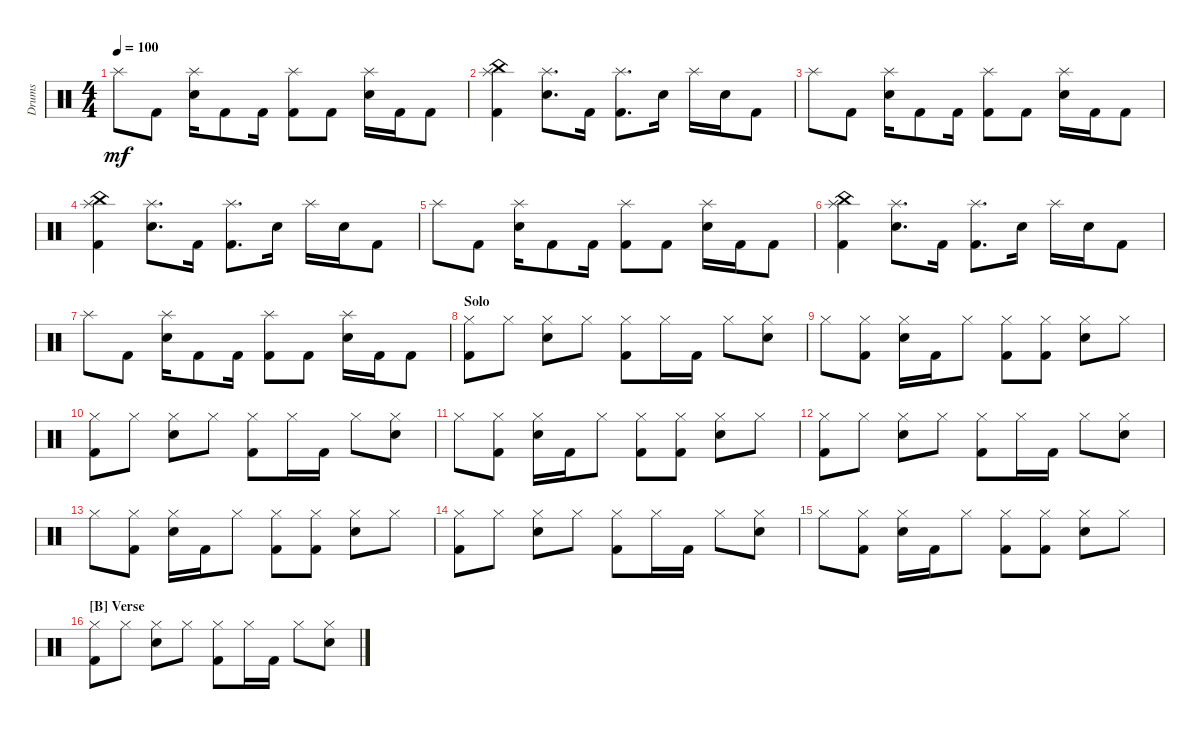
\defaultSystemsLayout 4
\bracketExtendMode groupsimilarinstruments
\otherSystemsTrackNameOrientation horizontal
\track ("Prakarsh" "Drums") {instrument percussion}
\staff {score}
\articulation defaults
\ts (4 4)
\tempo 100
\clef neutral
\ks c "Splash (hit)".8{dy mf beam Down} "Kick (hit) 2".8{beam Down}
("Snare (hit) 2" "Splash (hit)").16{beam Down} "Kick (hit) 2".8{beam Down} "Kick (hit) 2".16{beam Down} ("Kick (hit) 2" "Splash (hit)").8{beam Down} "Kick (hit) 2".8{beam Down} ("Snare (hit) 2" "Splash (hit)").16{beam Down} "Kick (hit) 2".16{beam Down} "Kick (hit) 2".8{beam Down} |
("Kick (hit) 2" "China (hit)" "Splash (hit)").4{beam Down} ("Snare (hit) 2" "Splash (hit)").8{d beam Down} "Kick (hit) 2".16{beam Down} ("Kick (hit) 2" "Splash (hit)").8{d beam Down} "Snare (hit) 2".16{beam Down} "Splash (hit)".16{beam Down} "Snare (hit) 2".16{beam Down} "Kick (hit) 2".8{beam Down} |
"Splash (hit)".8{beam Down} "Kick (hit) 2".8{beam Down} ("Snare (hit) 2" "Splash (hit)").16{beam Down} "Kick (hit) 2".8{beam Down} "Kick (hit) 2".16{beam Down} ("Kick (hit) 2" "Splash (hit)").8{beam Down} "Kick (hit) 2".8{beam Down} ("Snare (hit) 2" "Splash (hit)").16{beam Down} "Kick (hit) 2".16{beam Down} "Kick (hit) 2".8{beam Down} |
("Kick (hit) 2" "China (hit)" "Splash (hit)").4{beam Down} ("Snare (hit) 2" "Splash (hit)").8{d beam Down} "Kick (hit) 2".16{beam Down} ("Kick (hit) 2" "Splash (hit)").8{d beam Down} "Snare (hit) 2".16{beam Down} "Splash (hit)".16{beam Down} "Snare (hit) 2".16{beam Down} "Kick (hit) 2".8{beam Down} |
"Splash (hit)".8{beam Down} "Kick (hit) 2".8{beam Down} ("Snare (hit) 2" "Splash (hit)").16{beam Down} "Kick (hit) 2".8{beam Down} "Kick (hit) 2".16{beam Down} ("Kick (hit) 2" "Splash (hit)").8{beam Down} "Kick (hit) 2".8{beam Down} ("Snare (hit) 2" "Splash (hit)").16{beam Down} "Kick (hit) 2".16{beam Down} "Kick (hit) 2".8{beam Down} |
("Kick (hit) 2" "China (hit)" "Splash (hit)").4{beam Down} ("Snare (hit) 2" "Splash (hit)").8{d beam Down} "Kick (hit) 2".16{beam Down} ("Kick (hit) 2" "Splash (hit)").8{d beam Down} "Snare (hit) 2".16{beam Down} "Splash (hit)".16{beam Down} "Snare (hit) 2".16{beam Down} "Kick (hit) 2".8{beam Down} |
"Splash (hit)".8{beam Down} "Kick (hit) 2".8{beam Down} ("Snare (hit) 2" "Splash (hit)").16{beam Down} "Kick (hit) 2".8{beam Down} "Kick (hit) 2".16{beam Down} ("Kick (hit) 2" "Splash (hit)").8{beam Down} "Kick (hit) 2".8{beam Down} ("Snare (hit) 2" "Splash (hit)").16{beam Down} "Kick (hit) 2".16{beam Down} "Kick (hit) 2".8{beam Down} |
\section ("" "Solo")
("Hi-Hat (closed)" "Kick (hit) 2").8{beam Down} "Hi-Hat (closed)".8{beam Down} ("Hi-Hat (closed)" "Snare (hit) 2").8{beam Down} "Hi-Hat (closed)".8{beam Down} ("Hi-Hat (closed)" "Kick (hit) 2").8{beam Down} "Hi-Hat (closed)".16{beam Down} "Kick (hit) 2".16{beam Down} "Hi-Hat (closed)".8{beam Down} ("Hi-Hat (closed)" "Snare (hit) 2").8{beam Down} |
"Hi-Hat (closed)".8{beam Down} ("Hi-Hat (closed)" "Kick (hit) 2").8{beam Down} ("Hi-Hat (closed)" "Snare (hit) 2").16{beam Down} "Kick (hit) 2".16{beam Down} "Hi-Hat (closed)".8{beam Down} ("Hi-Hat (closed)" "Kick (hit) 2").8{beam Down} ("Hi-Hat (closed)" "Kick (hit) 2").8{beam Down} ("Hi-Hat (closed)" "Snare (hit) 2").8{beam Down} "Hi-Hat (closed)".8{beam Down} |
("Hi-Hat (closed)" "Kick (hit) 2").8{beam Down} "Hi-Hat (closed)".8{beam Down} ("Hi-Hat (closed)" "Snare (hit) 2").8{beam Down} "Hi-Hat (closed)".8{beam Down} ("Hi-Hat (closed)" "Kick (hit) 2").8{beam Down} "Hi-Hat (closed)".16{beam Down} "Kick (hit) 2".16{beam Down} "Hi-Hat (closed)".8{beam Down} ("Hi-Hat (closed)" "Snare (hit) 2").8{beam Down} |
"Hi-Hat (closed)".8{beam Down} ("Hi-Hat (closed)" "Kick (hit) 2").8{beam Down} ("Hi-Hat (closed)" "Snare (hit) 2").16{beam Down} "Kick (hit) 2".16{beam Down} "Hi-Hat (closed)".8{beam Down} ("Hi-Hat (closed)" "Kick (hit) 2").8{beam Down} ("Hi-Hat (closed)" "Kick (hit) 2").8{beam Down} ("Hi-Hat (closed)" "Snare (hit) 2").8{beam Down} "Hi-Hat (closed)".8{beam Down} |
("Hi-Hat (closed)" "Kick (hit) 2").8{beam Down} "Hi-Hat (closed)".8{beam Down} ("Hi-Hat (closed)" "Snare (hit) 2").8{beam Down} "Hi-Hat (closed)".8{beam Down} ("Hi-Hat (closed)" "Kick (hit) 2").8{beam Down} "Hi-Hat (closed)".16{beam Down} "Kick (hit) 2".16{beam Down} "Hi-Hat (closed)".8{beam Down} ("Hi-Hat (closed)" "Snare (hit) 2").8{beam Down} |
"Hi-Hat (closed)".8{beam Down} ("Hi-Hat (closed)" "Kick (hit) 2").8{beam Down} ("Hi-Hat (closed)" "Snare (hit) 2").16{beam Down} "Kick (hit) 2".16{beam Down} "Hi-Hat (closed)".8{beam Down} ("Hi-Hat (closed)" "Kick (hit) 2").8{beam Down} ("Hi-Hat (closed)" "Kick (hit) 2").8{beam Down} ("Hi-Hat (closed)" "Snare (hit) 2").8{beam Down} "Hi-Hat (closed)".8{beam Down} |
("Hi-Hat (closed)" "Kick (hit) 2").8{beam Down} "Hi-Hat (closed)".8{beam Down} ("Hi-Hat (closed)" "Snare (hit) 2").8{beam Down} "Hi-Hat (closed)".8{beam Down} ("Hi-Hat (closed)" "Kick (hit) 2").8{beam Down} "Hi-Hat (closed)".16{beam Down} "Kick (hit) 2".16{beam Down} "Hi-Hat (closed)".8{beam Down} ("Hi-Hat (closed)" "Snare (hit) 2").8{beam Down} |
"Hi-Hat (closed)".8{beam Down} ("Hi-Hat (closed)" "Kick (hit) 2").8{beam Down} ("Hi-Hat (closed)" "Snare (hit) 2").16{beam Down} "Kick (hit) 2".16{beam Down} "Hi-Hat (closed)".8{beam Down} ("Hi-Hat (closed)" "Kick (hit) 2").8{beam Down} ("Hi-Hat (closed)" "Kick (hit) 2").8{beam Down} ("Hi-Hat (closed)" "Snare (hit) 2").8{beam Down} "Hi-Hat (closed)".8{beam Down} |
\section ("B" "Verse")
("Hi-Hat (closed)" "Kick (hit) 2").8{beam Down} "Hi-Hat (closed)".8{beam Down} ("Hi-Hat (closed)" "Snare (hit) 2").8{beam Down} "Hi-Hat (closed)".8{beam Down} ("Hi-Hat (closed)" "Kick (hit) 2").8{beam Down} "Hi-Hat (closed)".16{beam Down} "Kick (hit) 2".16{beam Down} "Hi-Hat (closed)".8{beam Down} ("Hi-Hat (closed)" "Snare (hit) 2").8{beam Down}
